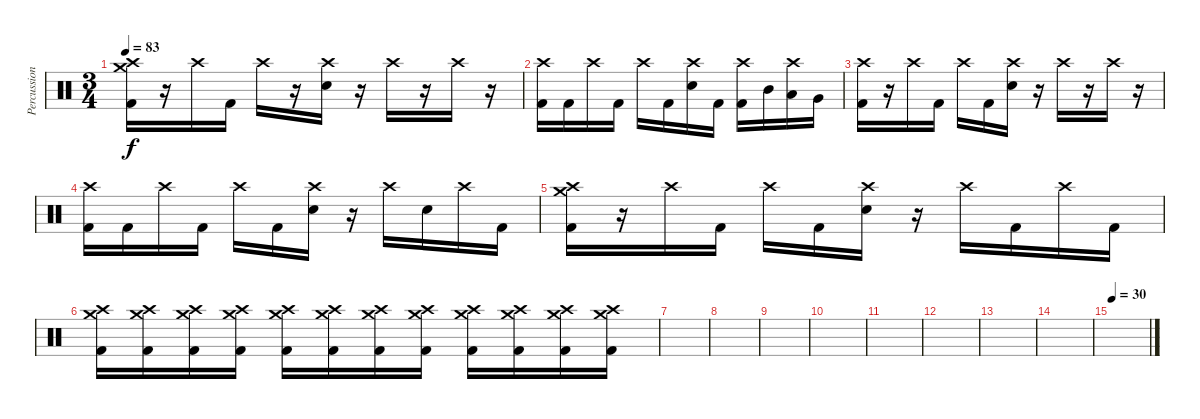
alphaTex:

\track ("Percussion" "Percussion") {instrument percussion}
\staff {score}
\articulation defaults
\ts (3 4)
\tempo 83
\clef neutral
\ks c
("Kick (hit) 2" "Crash medium (hit)" "Crash high (hit)").16{dy f} r.16 "Crash high (hit)".16 "Kick (hit) 2".16 "Crash high (hit)".16 r.16 ("Electric Snare (hit)" "Crash high (hit)").16 r.16 "Crash high (hit)".16 r.16 "Crash high (hit)".16 r.16 |
("Kick (hit) 2" "Crash high (hit)").16 "Kick (hit) 2".16 "Crash high (hit)".16 "Kick (hit) 2".16 "Crash high (hit)".16 "Kick (hit) 2".16 ("Electric Snare (hit)" "Crash high (hit)").16 "Kick (hit) 2".16 ("Kick (hit) 2" "Crash high (hit)").16 "Mid Tom (hit)".16 ("Low Tom (hit)" "Crash high (hit)").16 "Very Low Tom (hit)".16 |
("Kick (hit) 2" "Crash high (hit)").16 r.16 "Crash high (hit)".16 "Kick (hit) 2".16 "Crash high (hit)".16 "Kick (hit) 2".16 ("Electric Snare (hit)" "Crash high (hit)").16 r.16 "Crash high (hit)".16 r.16 "Crash high (hit)".16 r.16 |
("Kick (hit) 2" "Crash high (hit)").16 "Kick (hit) 2".16 "Crash high (hit)".16 "Kick (hit) 2".16 "Crash high (hit)".16 "Kick (hit) 2".16 ("Electric Snare (hit)" "Crash high (hit)").16 r.16 "Crash high (hit)".16 "Electric Snare (hit)".16 "Crash high (hit)".16 "Kick (hit) 2".16 |
("Kick (hit) 2" "Crash medium (hit)" "Crash high (hit)").16 r.16 "Crash high (hit)".16 "Kick (hit) 2".16 "Crash high (hit)".16 "Kick (hit) 2".16 ("Electric Snare (hit)" "Crash high (hit)").16 r.16 "Crash high (hit)".16 "Kick (hit) 2".16 "Crash high (hit)".16 "Kick (hit) 2".16 |
("Kick (hit) 2" "Crash medium (hit)" "Crash high (hit)").16 ("Kick (hit) 2" "Crash medium (hit)" "Crash high (hit)").16 ("Kick (hit) 2" "Crash medium (hit)" "Crash high (hit)").16 ("Kick (hit) 2" "Crash medium (hit)" "Crash high (hit)").16 ("Kick (hit) 2" "Crash medium (hit)" "Crash high (hit)").16 ("Kick (hit) 2" "Crash medium (hit)" "Crash high (hit)").16 ("Kick (hit) 2" "Crash medium (hit)" "Crash high (hit)").16 ("Kick (hit) 2" "Crash medium (hit)" "Crash high (hit)").16 ("Kick (hit) 2" "Crash medium (hit)" "Crash high (hit)").16 ("Kick (hit) 2" "Crash medium (hit)" "Crash high (hit)").16 ("Kick (hit) 2" "Crash medium (hit)" "Crash high (hit)").16 ("Kick (hit) 2" "Crash medium (hit)" "Crash high (hit)").16 |
|
|
|
|
|
|
|
|
\tempo 30
